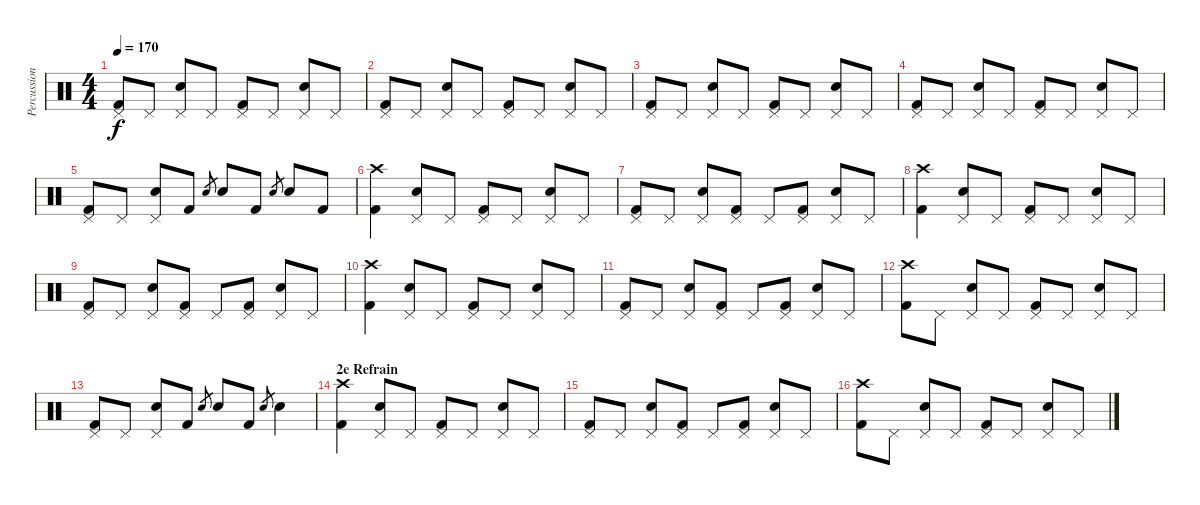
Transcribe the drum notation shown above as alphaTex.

\track ("Percussions" "Percussion") {instrument percussion}
\staff {score}
\articulation defaults
\ts (4 4)
\tempo 170
\clef neutral
\ks c
("Pedal Hi-Hat (hit)" "Kick (hit) 2").8{dy f} "Pedal Hi-Hat (hit)".8 ("Pedal Hi-Hat (hit)" "Electric Snare (hit)").8 "Pedal Hi-Hat (hit)".8 ("Pedal Hi-Hat (hit)" "Kick (hit) 2").8 "Pedal Hi-Hat (hit)".8 ("Pedal Hi-Hat (hit)" "Electric Snare (hit)").8 "Pedal Hi-Hat (hit)".8 |
("Pedal Hi-Hat (hit)" "Kick (hit) 2").8 "Pedal Hi-Hat (hit)".8 ("Pedal Hi-Hat (hit)" "Electric Snare (hit)").8 "Pedal Hi-Hat (hit)".8 ("Pedal Hi-Hat (hit)" "Kick (hit) 2").8 "Pedal Hi-Hat (hit)".8 ("Pedal Hi-Hat (hit)" "Electric Snare (hit)").8 "Pedal Hi-Hat (hit)".8 |
("Pedal Hi-Hat (hit)" "Kick (hit) 2").8 "Pedal Hi-Hat (hit)".8 ("Pedal Hi-Hat (hit)" "Electric Snare (hit)").8 "Pedal Hi-Hat (hit)".8 ("Pedal Hi-Hat (hit)" "Kick (hit) 2").8 "Pedal Hi-Hat (hit)".8 ("Pedal Hi-Hat (hit)" "Electric Snare (hit)").8 "Pedal Hi-Hat (hit)".8 |
("Pedal Hi-Hat (hit)" "Kick (hit) 2").8 "Pedal Hi-Hat (hit)".8 ("Pedal Hi-Hat (hit)" "Electric Snare (hit)").8 "Pedal Hi-Hat (hit)".8 ("Pedal Hi-Hat (hit)" "Kick (hit) 2").8 "Pedal Hi-Hat (hit)".8 ("Pedal Hi-Hat (hit)" "Electric Snare (hit)").8 "Pedal Hi-Hat (hit)".8 |
("Pedal Hi-Hat (hit)" "Kick (hit) 2").8 "Pedal Hi-Hat (hit)".8 ("Pedal Hi-Hat (hit)" "Electric Snare (hit)").8 "Kick (hit) 2".8 "Electric Snare (hit)".8{gr} "Electric Snare (hit)".8 "Kick (hit) 2".8 "Electric Snare (hit)".8{gr} "Electric Snare (hit)".8 "Kick (hit) 2".8 |
("Crash high (hit)" "Kick (hit) 2").4 ("Pedal Hi-Hat (hit)" "Electric Snare (hit)").8 "Pedal Hi-Hat (hit)".8 ("Pedal Hi-Hat (hit)" "Kick (hit) 2").8 "Pedal Hi-Hat (hit)".8 ("Pedal Hi-Hat (hit)" "Electric Snare (hit)").8 "Pedal Hi-Hat (hit)".8 |
("Pedal Hi-Hat (hit)" "Kick (hit) 2").8 "Pedal Hi-Hat (hit)".8 ("Pedal Hi-Hat (hit)" "Electric Snare (hit)").8 ("Pedal Hi-Hat (hit)" "Kick (hit) 2").8 "Pedal Hi-Hat (hit)".8 ("Pedal Hi-Hat (hit)" "Kick (hit) 2").8 ("Pedal Hi-Hat (hit)" "Electric Snare (hit)").8 "Pedal Hi-Hat (hit)".8 |
("Crash high (hit)" "Kick (hit) 2").4 ("Pedal Hi-Hat (hit)" "Electric Snare (hit)").8 "Pedal Hi-Hat (hit)".8 ("Pedal Hi-Hat (hit)" "Kick (hit) 2").8 "Pedal Hi-Hat (hit)".8 ("Pedal Hi-Hat (hit)" "Electric Snare (hit)").8 "Pedal Hi-Hat (hit)".8 |
("Pedal Hi-Hat (hit)" "Kick (hit) 2").8 "Pedal Hi-Hat (hit)".8 ("Pedal Hi-Hat (hit)" "Electric Snare (hit)").8 ("Pedal Hi-Hat (hit)" "Kick (hit) 2").8 "Pedal Hi-Hat (hit)".8 ("Pedal Hi-Hat (hit)" "Kick (hit) 2").8 ("Pedal Hi-Hat (hit)" "Electric Snare (hit)").8 "Pedal Hi-Hat (hit)".8 |
("Crash high (hit)" "Kick (hit) 2").4 ("Pedal Hi-Hat (hit)" "Electric Snare (hit)").8 "Pedal Hi-Hat (hit)".8 ("Pedal Hi-Hat (hit)" "Kick (hit) 2").8 "Pedal Hi-Hat (hit)".8 ("Pedal Hi-Hat (hit)" "Electric Snare (hit)").8 "Pedal Hi-Hat (hit)".8 |
("Pedal Hi-Hat (hit)" "Kick (hit) 2").8 "Pedal Hi-Hat (hit)".8 ("Pedal Hi-Hat (hit)" "Electric Snare (hit)").8 ("Pedal Hi-Hat (hit)" "Kick (hit) 2").8 "Pedal Hi-Hat (hit)".8 ("Pedal Hi-Hat (hit)" "Kick (hit) 2").8 ("Pedal Hi-Hat (hit)" "Electric Snare (hit)").8 "Pedal Hi-Hat (hit)".8 |
("Crash high (hit)" "Kick (hit) 2").8 "Pedal Hi-Hat (hit)".8 ("Pedal Hi-Hat (hit)" "Electric Snare (hit)").8 "Pedal Hi-Hat (hit)".8 ("Pedal Hi-Hat (hit)" "Kick (hit) 2").8 "Pedal Hi-Hat (hit)".8 ("Pedal Hi-Hat (hit)" "Electric Snare (hit)").8 "Pedal Hi-Hat (hit)".8 |
("Pedal Hi-Hat (hit)" "Kick (hit) 2").8 "Pedal Hi-Hat (hit)".8 ("Pedal Hi-Hat (hit)" "Electric Snare (hit)").8 "Kick (hit) 2".8 "Electric Snare (hit)".8{gr} "Electric Snare (hit)".8 "Kick (hit) 2".8 "Electric Snare (hit)".8{gr} "Electric Snare (hit)".4 |
\section ("" "2e Refrain")
("Crash high (hit)" "Kick (hit) 2").4 ("Pedal Hi-Hat (hit)" "Electric Snare (hit)").8 "Pedal Hi-Hat (hit)".8 ("Pedal Hi-Hat (hit)" "Kick (hit) 2").8 "Pedal Hi-Hat (hit)".8 ("Pedal Hi-Hat (hit)" "Electric Snare (hit)").8 "Pedal Hi-Hat (hit)".8 |
("Pedal Hi-Hat (hit)" "Kick (hit) 2").8 "Pedal Hi-Hat (hit)".8 ("Pedal Hi-Hat (hit)" "Electric Snare (hit)").8 ("Pedal Hi-Hat (hit)" "Kick (hit) 2").8 "Pedal Hi-Hat (hit)".8 ("Pedal Hi-Hat (hit)" "Kick (hit) 2").8 ("Pedal Hi-Hat (hit)" "Electric Snare (hit)").8 "Pedal Hi-Hat (hit)".8 |
("Crash high (hit)" "Kick (hit) 2").8 "Pedal Hi-Hat (hit)".8 ("Pedal Hi-Hat (hit)" "Electric Snare (hit)").8 "Pedal Hi-Hat (hit)".8 ("Pedal Hi-Hat (hit)" "Kick (hit) 2").8 "Pedal Hi-Hat (hit)".8 ("Pedal Hi-Hat (hit)" "Electric Snare (hit)").8 "Pedal Hi-Hat (hit)".8
